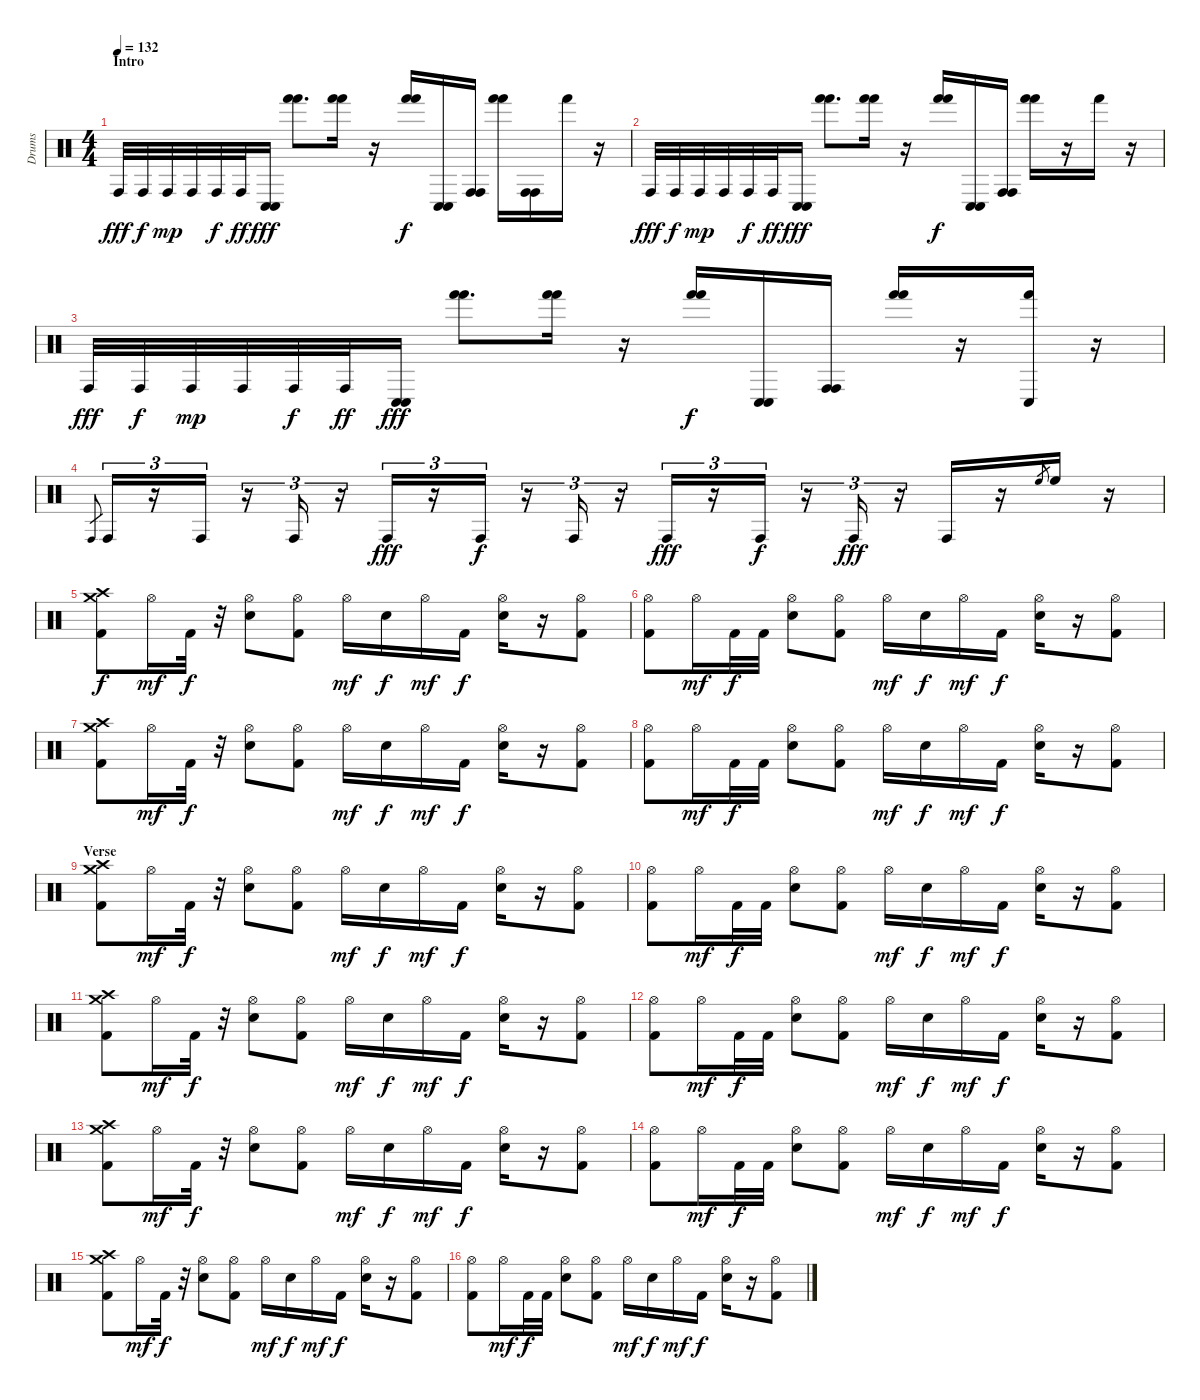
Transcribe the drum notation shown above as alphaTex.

\track ("Drums" "Drums") {instrument percussion}
\staff {score}
\articulation defaults
\ts (4 4)
\section ("" "Intro")
\tempo 132
\clef neutral
\ks c "Conga high (hit)".32{dy fff} "Conga high (hit)".32{dy f} "Conga high (hit)".32{dy mp} "Conga high (hit)".32 "Conga high (hit)".32{dy f} "Conga high (hit)".32{dy ff}
("Conga low (hit)" "Conga low (hit)").16{dy fff} ("Hand (hit)" "Hand (hit)").8{d} ("Hand (hit)" "Hand (hit)").16 r.16 ("Hand (hit)" "Hand (hit)").16{dy f} ("Conga low (hit)" "Conga low (hit)").16 ("Conga high (hit)" "Conga high (hit)").16 ("Hand (hit)" "Hand (hit)").16 ("Conga high (hit)" "Conga high (hit)").16 "Hand (hit)".16 r.16 |
"Conga high (hit)".32{dy fff} "Conga high (hit)".32{dy f} "Conga high (hit)".32{dy mp} "Conga high (hit)".32 "Conga high (hit)".32{dy f} "Conga high (hit)".32{dy ff} ("Conga low (hit)" "Conga low (hit)").16{dy fff} ("Hand (hit)" "Hand (hit)").8{d} ("Hand (hit)" "Hand (hit)").16 r.16 ("Hand (hit)" "Hand (hit)").16{dy f} ("Conga low (hit)" "Conga low (hit)").16 ("Conga high (hit)" "Conga high (hit)").16 ("Hand (hit)" "Hand (hit)").16 r.16 "Hand (hit)".16 r.16 |
"Conga high (hit)".32{dy fff} "Conga high (hit)".32{dy f} "Conga high (hit)".32{dy mp} "Conga high (hit)".32 "Conga high (hit)".32{dy f} "Conga high (hit)".32{dy ff} ("Conga low (hit)" "Conga low (hit)").16{dy fff} ("Hand (hit)" "Hand (hit)").8{d} ("Hand (hit)" "Hand (hit)").16 r.16 ("Hand (hit)" "Hand (hit)").16{dy f} ("Conga low (hit)" "Conga low (hit)").16 ("Conga high (hit)" "Conga high (hit)").16 ("Hand (hit)" "Hand (hit)").16 r.16 ("Conga low (hit)" "Hand (hit)").16 r.16 |
"Conga high (hit)".8{gr} "Conga high (hit)".16{tu (3 2)} r.16{tu (3 2)} "Conga high (hit)".16{tu (3 2)} r.16{tu (3 2)} "Conga high (hit)".16{tu (3 2)} r.16{tu (3 2)} "Conga high (hit)".16{tu (3 2) dy fff} r.16{tu (3 2)} "Conga high (hit)".16{tu (3 2) dy f} r.16{tu (3 2)} "Conga high (hit)".16{tu (3 2)} r.16{tu (3 2)} "Conga high (hit)".16{tu (3 2) dy fff} r.16{tu (3 2)} "Conga high (hit)".16{tu (3 2) dy f} r.16{tu (3 2)} "Conga high (hit)".16{tu (3 2) dy fff} r.16{tu (3 2)} "Conga high (hit)".16 r.16 "High Floor Tom (hit)".8{gr} "High Floor Tom (hit)".16 r.16 |
("Crash high (hit)" "Crash medium (hit)" "Kick (hit) 2").8{dy f} "Hi-Hat (open)".16{dy mf} "Kick (hit) 2".32{dy f} r.32 ("Hi-Hat (open)" "Snare (hit) 2").8 ("Hi-Hat (open)" "Kick (hit) 2").8 "Hi-Hat (open)".16{dy mf} "Snare (hit) 2".16{dy f} "Hi-Hat (open)".16{dy mf} "Kick (hit) 2".16{dy f} ("Hi-Hat (open)" "Snare (hit) 2").16 r.16 ("Hi-Hat (open)" "Kick (hit) 2").8 |
("Hi-Hat (open)" "Kick (hit) 2").8 "Hi-Hat (open)".16{dy mf} "Kick (hit) 2".32{dy f} "Kick (hit) 2".32 ("Hi-Hat (open)" "Snare (hit) 2").8 ("Hi-Hat (open)" "Kick (hit) 2").8 "Hi-Hat (open)".16{dy mf} "Snare (hit) 2".16{dy f} "Hi-Hat (open)".16{dy mf} "Kick (hit) 2".16{dy f} ("Hi-Hat (open)" "Snare (hit) 2").16 r.16 ("Hi-Hat (open)" "Kick (hit) 2").8 |
("Crash high (hit)" "Crash medium (hit)" "Kick (hit) 2").8 "Hi-Hat (open)".16{dy mf} "Kick (hit) 2".32{dy f} r.32 ("Hi-Hat (open)" "Snare (hit) 2").8 ("Hi-Hat (open)" "Kick (hit) 2").8 "Hi-Hat (open)".16{dy mf} "Snare (hit) 2".16{dy f} "Hi-Hat (open)".16{dy mf} "Kick (hit) 2".16{dy f} ("Hi-Hat (open)" "Snare (hit) 2").16 r.16 ("Hi-Hat (open)" "Kick (hit) 2").8 |
("Hi-Hat (open)" "Kick (hit) 2").8 "Hi-Hat (open)".16{dy mf} "Kick (hit) 2".32{dy f} "Kick (hit) 2".32 ("Hi-Hat (open)" "Snare (hit) 2").8 ("Hi-Hat (open)" "Kick (hit) 2").8 "Hi-Hat (open)".16{dy mf} "Snare (hit) 2".16{dy f} "Hi-Hat (open)".16{dy mf} "Kick (hit) 2".16{dy f} ("Hi-Hat (open)" "Snare (hit) 2").16 r.16 ("Hi-Hat (open)" "Kick (hit) 2").8 |
\section ("" "Verse")
("Crash high (hit)" "Crash medium (hit)" "Kick (hit) 2").8 "Hi-Hat (open)".16{dy mf} "Kick (hit) 2".32{dy f} r.32 ("Hi-Hat (open)" "Snare (hit) 2").8 ("Hi-Hat (open)" "Kick (hit) 2").8 "Hi-Hat (open)".16{dy mf} "Snare (hit) 2".16{dy f} "Hi-Hat (open)".16{dy mf} "Kick (hit) 2".16{dy f} ("Hi-Hat (open)" "Snare (hit) 2").16 r.16 ("Hi-Hat (open)" "Kick (hit) 2").8 |
("Hi-Hat (open)" "Kick (hit) 2").8 "Hi-Hat (open)".16{dy mf} "Kick (hit) 2".32{dy f} "Kick (hit) 2".32 ("Hi-Hat (open)" "Snare (hit) 2").8 ("Hi-Hat (open)" "Kick (hit) 2").8 "Hi-Hat (open)".16{dy mf} "Snare (hit) 2".16{dy f} "Hi-Hat (open)".16{dy mf} "Kick (hit) 2".16{dy f} ("Hi-Hat (open)" "Snare (hit) 2").16 r.16 ("Hi-Hat (open)" "Kick (hit) 2").8 |
("Crash high (hit)" "Crash medium (hit)" "Kick (hit) 2").8 "Hi-Hat (open)".16{dy mf} "Kick (hit) 2".32{dy f} r.32 ("Hi-Hat (open)" "Snare (hit) 2").8 ("Hi-Hat (open)" "Kick (hit) 2").8 "Hi-Hat (open)".16{dy mf} "Snare (hit) 2".16{dy f} "Hi-Hat (open)".16{dy mf} "Kick (hit) 2".16{dy f} ("Hi-Hat (open)" "Snare (hit) 2").16 r.16 ("Hi-Hat (open)" "Kick (hit) 2").8 |
("Hi-Hat (open)" "Kick (hit) 2").8 "Hi-Hat (open)".16{dy mf} "Kick (hit) 2".32{dy f} "Kick (hit) 2".32 ("Hi-Hat (open)" "Snare (hit) 2").8 ("Hi-Hat (open)" "Kick (hit) 2").8 "Hi-Hat (open)".16{dy mf} "Snare (hit) 2".16{dy f} "Hi-Hat (open)".16{dy mf} "Kick (hit) 2".16{dy f} ("Hi-Hat (open)" "Snare (hit) 2").16 r.16 ("Hi-Hat (open)" "Kick (hit) 2").8 |
("Crash high (hit)" "Crash medium (hit)" "Kick (hit) 2").8 "Hi-Hat (open)".16{dy mf} "Kick (hit) 2".32{dy f} r.32 ("Hi-Hat (open)" "Snare (hit) 2").8 ("Hi-Hat (open)" "Kick (hit) 2").8 "Hi-Hat (open)".16{dy mf} "Snare (hit) 2".16{dy f} "Hi-Hat (open)".16{dy mf} "Kick (hit) 2".16{dy f} ("Hi-Hat (open)" "Snare (hit) 2").16 r.16 ("Hi-Hat (open)" "Kick (hit) 2").8 |
("Hi-Hat (open)" "Kick (hit) 2").8 "Hi-Hat (open)".16{dy mf} "Kick (hit) 2".32{dy f} "Kick (hit) 2".32 ("Hi-Hat (open)" "Snare (hit) 2").8 ("Hi-Hat (open)" "Kick (hit) 2").8 "Hi-Hat (open)".16{dy mf} "Snare (hit) 2".16{dy f} "Hi-Hat (open)".16{dy mf} "Kick (hit) 2".16{dy f} ("Hi-Hat (open)" "Snare (hit) 2").16 r.16 ("Hi-Hat (open)" "Kick (hit) 2").8 |
("Crash high (hit)" "Crash medium (hit)" "Kick (hit) 2").8 "Hi-Hat (open)".16{dy mf} "Kick (hit) 2".32{dy f} r.32 ("Hi-Hat (open)" "Snare (hit) 2").8 ("Hi-Hat (open)" "Kick (hit) 2").8 "Hi-Hat (open)".16{dy mf} "Snare (hit) 2".16{dy f} "Hi-Hat (open)".16{dy mf} "Kick (hit) 2".16{dy f} ("Hi-Hat (open)" "Snare (hit) 2").16 r.16 ("Hi-Hat (open)" "Kick (hit) 2").8 |
("Hi-Hat (open)" "Kick (hit) 2").8 "Hi-Hat (open)".16{dy mf} "Kick (hit) 2".32{dy f} "Kick (hit) 2".32 ("Hi-Hat (open)" "Snare (hit) 2").8 ("Hi-Hat (open)" "Kick (hit) 2").8 "Hi-Hat (open)".16{dy mf} "Snare (hit) 2".16{dy f} "Hi-Hat (open)".16{dy mf} "Kick (hit) 2".16{dy f} ("Hi-Hat (open)" "Snare (hit) 2").16 r.16 ("Hi-Hat (open)" "Kick (hit) 2").8
